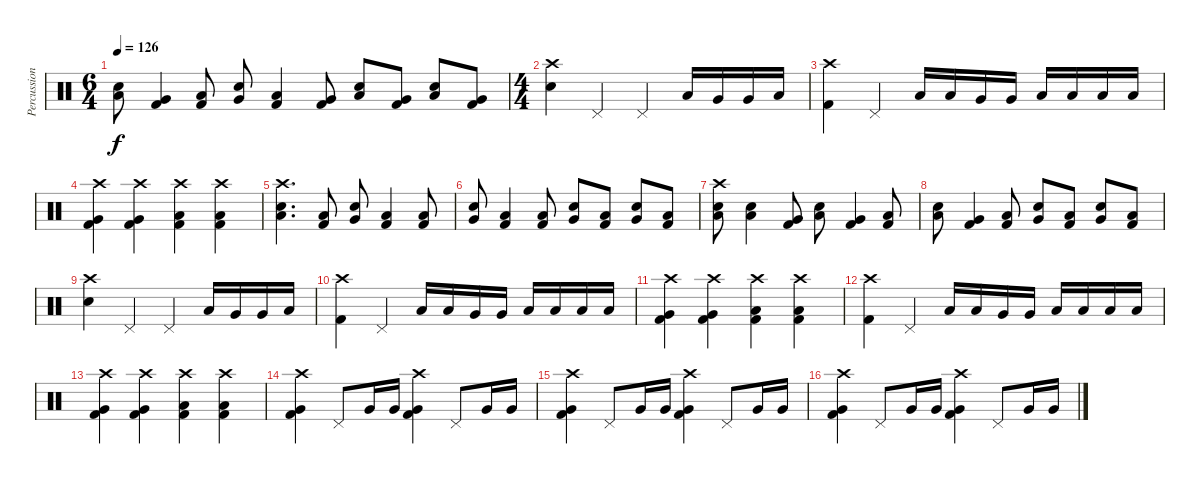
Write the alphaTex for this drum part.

\track ("Percussion" "Percussion") {instrument percussion}
\staff {score}
\articulation defaults
\ts (6 4)
\tempo 126
\clef neutral
\ks c
("Snare (hit) 2" "Low Floor Tom (hit)").8{dy f} ("Kick (hit) 2" "Very Low Tom (hit)").4 ("Kick (hit) 2" "Low Floor Tom (hit)").8 ("Snare (hit) 2" "Very Low Tom (hit)").8 ("Kick (hit) 2" "Low Floor Tom (hit)").4 ("Kick (hit) 2" "Very Low Tom (hit)").8 ("Snare (hit) 2" "Low Floor Tom (hit)").8 ("Kick (hit) 2" "Very Low Tom (hit)").8 ("Snare (hit) 2" "Low Floor Tom (hit)").8 ("Kick (hit) 2" "Very Low Tom (hit)").8 |
\ts (4 4)
("Crash high (hit)" "Snare (hit) 2").4 "Pedal Hi-Hat (hit)".4 "Pedal Hi-Hat (hit)".4 "Low Tom (hit)".16 "Very Low Tom (hit)".16 "Very Low Tom (hit)".16 "Low Floor Tom (hit)".16 |
("Kick (hit) 2" "Crash high (hit)").4 "Pedal Hi-Hat (hit)".4 "Low Tom (hit)".16 "Low Tom (hit)".16 "Very Low Tom (hit)".16 "Very Low Tom (hit)".16 "Low Floor Tom (hit)".16 "Low Floor Tom (hit)".16 "Low Floor Tom (hit)".16 "Low Floor Tom (hit)".16 |
("Crash high (hit)" "Kick (hit) 2" "Very Low Tom (hit)").4 ("Crash high (hit)" "Kick (hit) 2" "Very Low Tom (hit)").4 ("Crash high (hit)" "Kick (hit) 2" "Low Floor Tom (hit)").4 ("Crash high (hit)" "Kick (hit) 2" "Low Floor Tom (hit)").4 |
("Snare (hit) 2" "Crash high (hit)" "Low Floor Tom (hit)").4{d} ("Kick (hit) 2" "Low Floor Tom (hit)").8 ("Snare (hit) 2" "Very Low Tom (hit)").8 ("Kick (hit) 2" "Low Floor Tom (hit)").4 ("Kick (hit) 2" "Low Floor Tom (hit)").8 |
("Snare (hit) 2" "Very Low Tom (hit)").8 ("Kick (hit) 2" "Low Floor Tom (hit)").4 ("Kick (hit) 2" "Low Floor Tom (hit)").8 ("Snare (hit) 2" "Very Low Tom (hit)").8 ("Kick (hit) 2" "Low Floor Tom (hit)").8 ("Snare (hit) 2" "Very Low Tom (hit)").8 ("Kick (hit) 2" "Low Floor Tom (hit)").8 |
("Snare (hit) 2" "Low Floor Tom (hit)" "Crash high (hit)").8 ("Snare (hit) 2" "Low Floor Tom (hit)").4 ("Kick (hit) 2" "Very Low Tom (hit)").8 ("Snare (hit) 2" "Low Floor Tom (hit)").8 ("Kick (hit) 2" "Very Low Tom (hit)").4 ("Kick (hit) 2" "Low Floor Tom (hit)").8 |
("Snare (hit) 2" "Low Floor Tom (hit)").8 ("Kick (hit) 2" "Very Low Tom (hit)").4 ("Kick (hit) 2" "Low Floor Tom (hit)").8 ("Snare (hit) 2" "Very Low Tom (hit)").8 ("Kick (hit) 2" "Low Floor Tom (hit)").8 ("Snare (hit) 2" "Very Low Tom (hit)").8 ("Kick (hit) 2" "Low Floor Tom (hit)").8 |
("Crash high (hit)" "Snare (hit) 2").4 "Pedal Hi-Hat (hit)".4 "Pedal Hi-Hat (hit)".4 "Low Tom (hit)".16 "Very Low Tom (hit)".16 "Very Low Tom (hit)".16 "Low Floor Tom (hit)".16 |
("Kick (hit) 2" "Crash high (hit)").4 "Pedal Hi-Hat (hit)".4 "Low Tom (hit)".16 "Low Tom (hit)".16 "Very Low Tom (hit)".16 "Very Low Tom (hit)".16 "Low Floor Tom (hit)".16 "Low Floor Tom (hit)".16 "Low Floor Tom (hit)".16 "Low Floor Tom (hit)".16 |
("Crash high (hit)" "Kick (hit) 2" "Very Low Tom (hit)").4 ("Crash high (hit)" "Kick (hit) 2" "Very Low Tom (hit)").4 ("Crash high (hit)" "Kick (hit) 2" "Low Floor Tom (hit)").4 ("Crash high (hit)" "Kick (hit) 2" "Low Floor Tom (hit)").4 |
("Kick (hit) 2" "Crash high (hit)").4 "Pedal Hi-Hat (hit)".4 "Low Tom (hit)".16 "Low Tom (hit)".16 "Very Low Tom (hit)".16 "Very Low Tom (hit)".16 "Low Floor Tom (hit)".16 "Low Floor Tom (hit)".16 "Low Floor Tom (hit)".16 "Low Floor Tom (hit)".16 |
("Crash high (hit)" "Kick (hit) 2" "Very Low Tom (hit)").4 ("Crash high (hit)" "Kick (hit) 2" "Very Low Tom (hit)").4 ("Crash high (hit)" "Kick (hit) 2" "Low Floor Tom (hit)").4 ("Crash high (hit)" "Kick (hit) 2" "Low Floor Tom (hit)").4 |
("Crash high (hit)" "Kick (hit) 2" "Very Low Tom (hit)").4 "Pedal Hi-Hat (hit)".8 "Very Low Tom (hit)".16 "Very Low Tom (hit)".16 ("Crash high (hit)" "Kick (hit) 2" "Very Low Tom (hit)").4 "Pedal Hi-Hat (hit)".8 "Very Low Tom (hit)".16 "Very Low Tom (hit)".16 |
("Crash high (hit)" "Kick (hit) 2" "Very Low Tom (hit)").4 "Pedal Hi-Hat (hit)".8 "Very Low Tom (hit)".16 "Very Low Tom (hit)".16 ("Crash high (hit)" "Kick (hit) 2" "Very Low Tom (hit)").4 "Pedal Hi-Hat (hit)".8 "Very Low Tom (hit)".16 "Very Low Tom (hit)".16 |
("Crash high (hit)" "Kick (hit) 2" "Very Low Tom (hit)").4 "Pedal Hi-Hat (hit)".8 "Very Low Tom (hit)".16 "Very Low Tom (hit)".16 ("Crash high (hit)" "Kick (hit) 2" "Very Low Tom (hit)").4 "Pedal Hi-Hat (hit)".8 "Very Low Tom (hit)".16 "Very Low Tom (hit)".16
